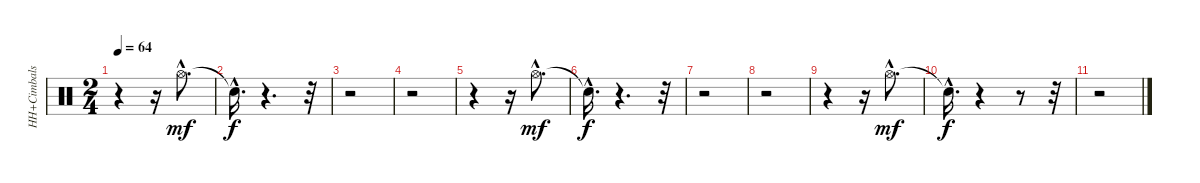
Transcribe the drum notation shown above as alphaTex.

\track ("HH+Cimbals" "HH+Cimbals") {instrument percussion}
\staff {score}
\articulation defaults
\ts (2 4)
\tempo 64
\clef neutral
\ks c
r.4{dy f} r.16 "Hi-Hat (open)"{hac}.8{d dy mf} |
"Snare (hit)"{hac t}.16{d dy f} r.4{d} r.32 |
r.2 |
r.2 |
r.4 r.16 "Hi-Hat (open)"{hac}.8{d dy mf} |
"Snare (hit)"{hac t}.16{d dy f} r.4{d} r.32 |
r.2 |
r.2 |
r.4 r.16 "Hi-Hat (open)"{hac}.8{d dy mf} |
"Snare (hit)"{hac t}.16{d dy f} r.4 r.8 r.32 |
r.2
